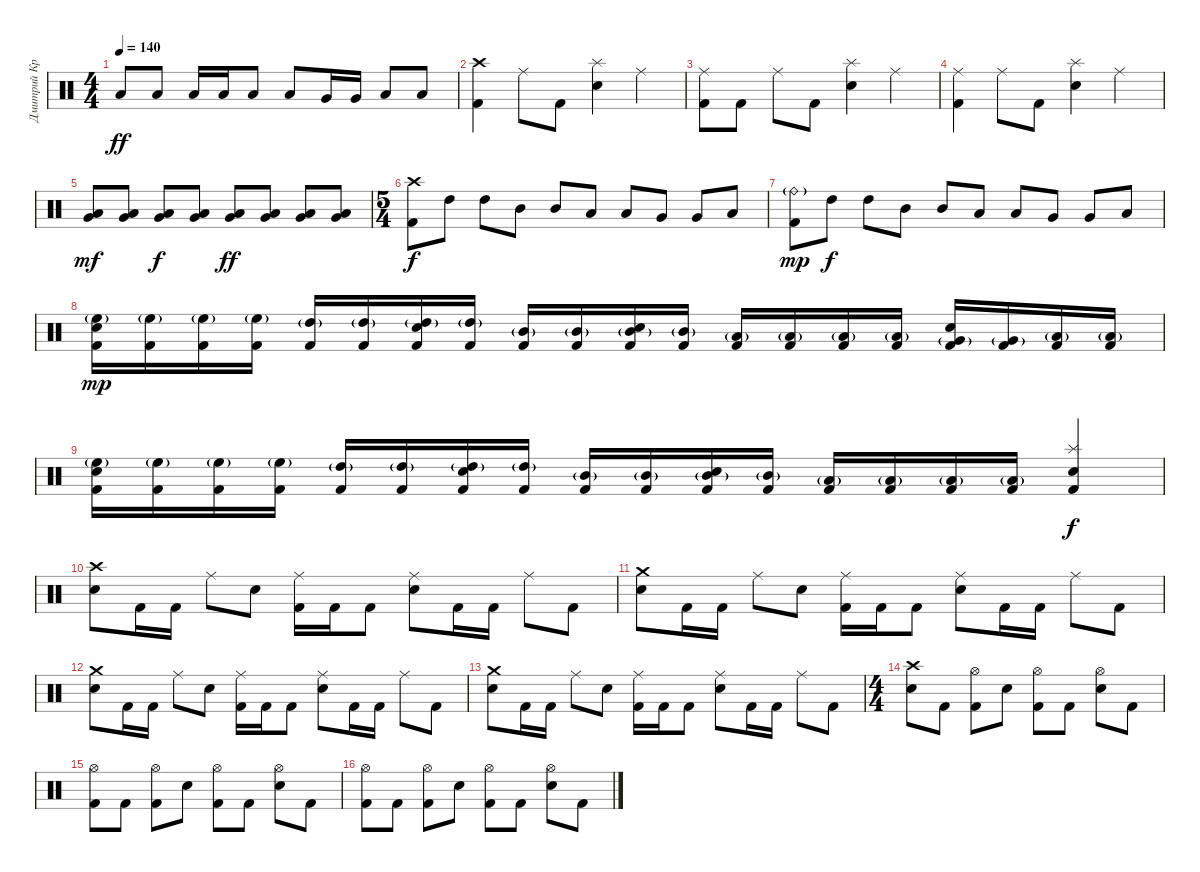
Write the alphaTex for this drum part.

\track ("Дмитрий Кривенков" "Дмитрий Кр") {instrument percussion}
\staff {score}
\articulation defaults
\ts (4 4)
\tempo 140
\clef neutral
\ks c "Low Tom (hit)".8{dy ff} "Low Tom (hit)".8 "Low Tom (hit)".16 "Low Tom (hit)".16 "Low Tom (hit)".8 "Low Tom (hit)".8 "Very Low Tom (hit)".16 "Very Low Tom (hit)".16 "Low Floor Tom (hit)".8 "Low Floor Tom (hit)".8
|
("Crash high (hit)" "Kick (hit) 2").4 "Ride (middle)".8 "Kick (hit) 2".8 ("Splash (hit)" "Electric Snare (hit)").4 "Ride (middle)".4 |
("Ride (middle)" "Kick (hit) 2").8 "Kick (hit) 2".8 "Ride (middle)".8 "Kick (hit) 2".8 ("Splash (hit)" "Electric Snare (hit)").4 "Ride (middle)".4 |
("Ride (middle)" "Kick (hit) 2").4 "Ride (middle)".8 "Kick (hit) 2".8 ("Splash (hit)" "Electric Snare (hit)").4 "Ride (middle)".4 |
("Very Low Tom (hit)" "Low Floor Tom (hit)").8{dy mf} ("Very Low Tom (hit)" "Low Floor Tom (hit)").8 ("Very Low Tom (hit)" "Low Floor Tom (hit)").8{dy f} ("Very Low Tom (hit)" "Low Floor Tom (hit)").8 ("Very Low Tom (hit)" "Low Floor Tom (hit)").8{dy ff} ("Very Low Tom (hit)" "Low Floor Tom (hit)").8 ("Very Low Tom (hit)" "Low Floor Tom (hit)").8 ("Very Low Tom (hit)" "Low Floor Tom (hit)").8 |
\ts (5 4)
("Crash high (hit)" "Kick (hit) 2").8{dy f} "High Tom (hit)".8 "High Tom (hit)".8 "Mid Tom (hit)".8 "Mid Tom (hit)".8 "Low Tom (hit)".8 "Low Tom (hit)".8 "Very Low Tom (hit)".8 "Very Low Tom (hit)".8 "Low Floor Tom (hit)".8 |
("Ride (bell)"{g} "Kick (hit) 2").8{dy mp} "High Tom (hit)".8{dy f} "High Tom (hit)".8 "Mid Tom (hit)".8 "Mid Tom (hit)".8 "Low Tom (hit)".8 "Low Tom (hit)".8 "Very Low Tom (hit)".8 "Very Low Tom (hit)".8 "Low Floor Tom (hit)".8 |
("High Floor Tom (hit)"{g} "Electric Snare (hit)" "Kick (hit) 2").16{dy mp} ("High Floor Tom (hit)"{g} "Kick (hit) 2").16 ("High Floor Tom (hit)"{g} "Kick (hit) 2").16 ("High Floor Tom (hit)"{g} "Kick (hit) 2").16 ("High Tom (hit)"{g} "Kick (hit) 2").16 ("High Tom (hit)"{g} "Kick (hit) 2").16 ("High Tom (hit)"{g} "Electric Snare (hit)" "Kick (hit) 2").16 ("High Tom (hit)"{g} "Kick (hit) 2").16 ("Mid Tom (hit)"{g} "Kick (hit) 2").16 ("Mid Tom (hit)"{g} "Kick (hit) 2").16 ("Mid Tom (hit)"{g} "Electric Snare (hit)" "Kick (hit) 2").16 ("Mid Tom (hit)"{g} "Kick (hit) 2").16 ("Low Tom (hit)"{g} "Kick (hit) 2").16 ("Low Tom (hit)"{g} "Kick (hit) 2").16 ("Low Tom (hit)"{g} "Kick (hit) 2").16 ("Low Tom (hit)"{g} "Kick (hit) 2").16 ("Very Low Tom (hit)"{g} "Electric Snare (hit)" "Kick (hit) 2").16 ("Very Low Tom (hit)"{g} "Kick (hit) 2").16 ("Low Floor Tom (hit)"{g} "Kick (hit) 2").16 ("Low Floor Tom (hit)"{g} "Kick (hit) 2").16 |
("High Floor Tom (hit)"{g} "Electric Snare (hit)" "Kick (hit) 2").16 ("High Floor Tom (hit)"{g} "Kick (hit) 2").16 ("High Floor Tom (hit)"{g} "Kick (hit) 2").16 ("High Floor Tom (hit)"{g} "Kick (hit) 2").16 ("High Tom (hit)"{g} "Kick (hit) 2").16 ("High Tom (hit)"{g} "Kick (hit) 2").16 ("High Tom (hit)"{g} "Electric Snare (hit)" "Kick (hit) 2").16 ("High Tom (hit)"{g} "Kick (hit) 2").16 ("Mid Tom (hit)"{g} "Kick (hit) 2").16 ("Mid Tom (hit)"{g} "Kick (hit) 2").16 ("Mid Tom (hit)"{g} "Electric Snare (hit)" "Kick (hit) 2").16 ("Mid Tom (hit)"{g} "Kick (hit) 2").16 ("Low Tom (hit)"{g} "Kick (hit) 2").16 ("Low Tom (hit)"{g} "Kick (hit) 2").16 ("Low Tom (hit)"{g} "Kick (hit) 2").16 ("Low Tom (hit)"{g} "Kick (hit) 2").16 ("Splash (hit)" "Electric Snare (hit)" "Kick (hit) 2").4{dy f} |
("Crash high (hit)" "Electric Snare (hit)").8 "Kick (hit) 2".16 "Kick (hit) 2".16 "Ride (middle)".8 "Electric Snare (hit)".8 ("Ride (middle)" "Kick (hit) 2").16 "Kick (hit) 2".16 "Kick (hit) 2".8 ("Ride (middle)" "Electric Snare (hit)").8 "Kick (hit) 2".16 "Kick (hit) 2".16 "Ride (middle)".8 "Kick (hit) 2".8 |
("Crash medium (hit)" "Electric Snare (hit)").8 "Kick (hit) 2".16 "Kick (hit) 2".16 "Ride (middle)".8 "Electric Snare (hit)".8 ("Ride (middle)" "Kick (hit) 2").16 "Kick (hit) 2".16 "Kick (hit) 2".8 ("Ride (middle)" "Electric Snare (hit)").8 "Kick (hit) 2".16 "Kick (hit) 2".16 "Ride (middle)".8 "Kick (hit) 2".8 |
("Crash medium (hit)" "Electric Snare (hit)").8 "Kick (hit) 2".16 "Kick (hit) 2".16 "Ride (middle)".8 "Electric Snare (hit)".8 ("Ride (middle)" "Kick (hit) 2").16 "Kick (hit) 2".16 "Kick (hit) 2".8 ("Ride (middle)" "Electric Snare (hit)").8 "Kick (hit) 2".16 "Kick (hit) 2".16 "Ride (middle)".8 "Kick (hit) 2".8 |
("Crash medium (hit)" "Electric Snare (hit)").8 "Kick (hit) 2".16 "Kick (hit) 2".16 "Ride (middle)".8 "Electric Snare (hit)".8 ("Ride (middle)" "Kick (hit) 2").16 "Kick (hit) 2".16 "Kick (hit) 2".8 ("Ride (middle)" "Electric Snare (hit)").8 "Kick (hit) 2".16 "Kick (hit) 2".16 "Ride (middle)".8 "Kick (hit) 2".8 |
\ts (4 4)
("Crash high (hit)" "Electric Snare (hit)").8 "Kick (hit) 2".8 ("Hi-Hat (open)" "Kick (hit) 2").8 "Electric Snare (hit)".8 ("Hi-Hat (open)" "Kick (hit) 2").8 "Kick (hit) 2".8 ("Hi-Hat (open)" "Electric Snare (hit)").8 "Kick (hit) 2".8 |
("Hi-Hat (open)" "Kick (hit) 2").8 "Kick (hit) 2".8 ("Hi-Hat (open)" "Kick (hit) 2").8 "Electric Snare (hit)".8 ("Hi-Hat (open)" "Kick (hit) 2").8 "Kick (hit) 2".8 ("Hi-Hat (open)" "Electric Snare (hit)").8 "Kick (hit) 2".8 |
("Hi-Hat (open)" "Kick (hit) 2").8 "Kick (hit) 2".8 ("Hi-Hat (open)" "Kick (hit) 2").8 "Electric Snare (hit)".8 ("Hi-Hat (open)" "Kick (hit) 2").8 "Kick (hit) 2".8 ("Hi-Hat (open)" "Electric Snare (hit)").8 "Kick (hit) 2".8
